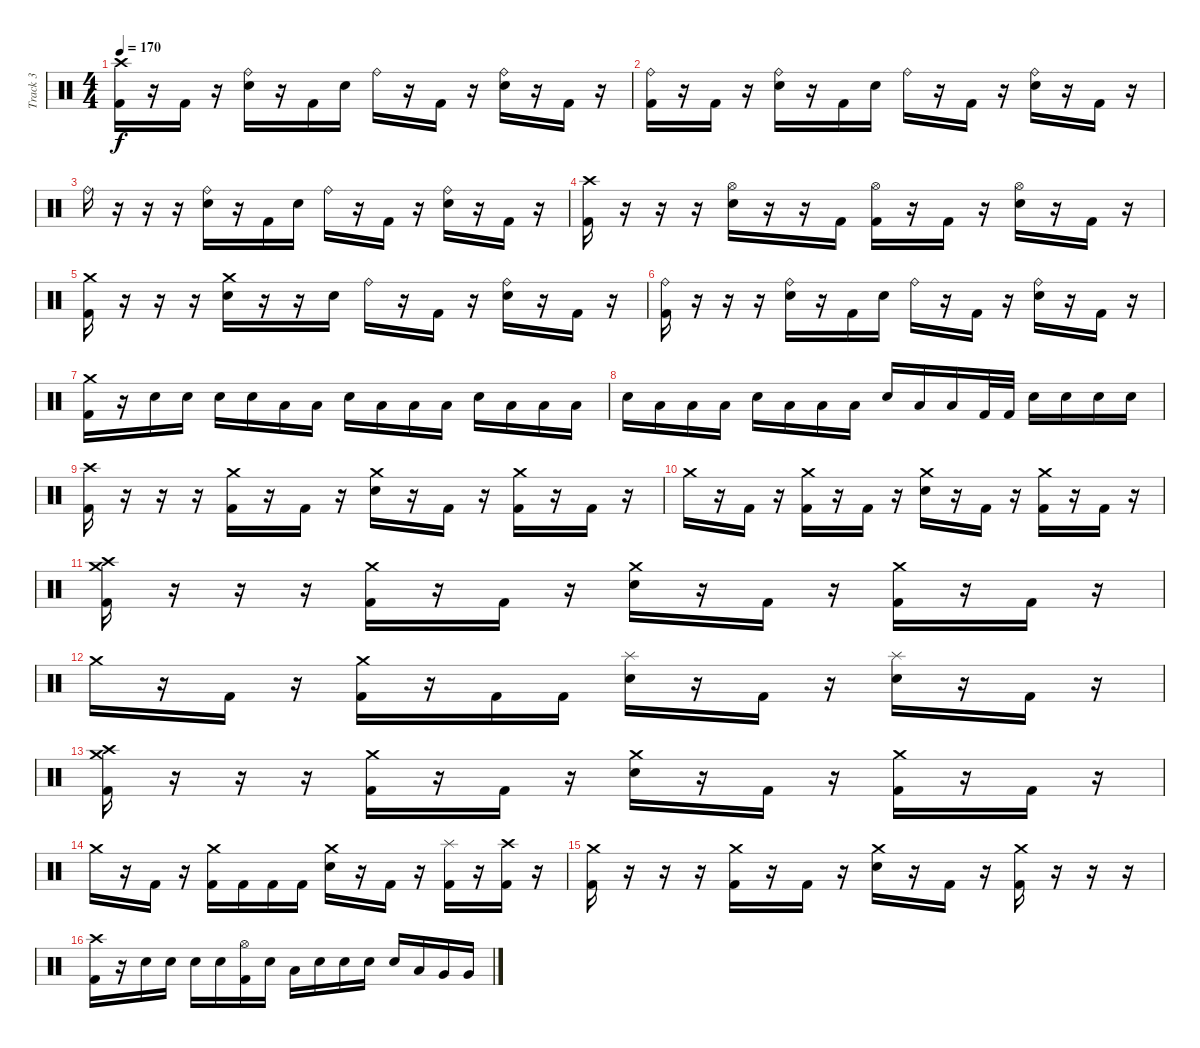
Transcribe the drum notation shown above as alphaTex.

\track ("Track 3" "Track 3") {instrument percussion}
\staff {score}
\articulation defaults
\ts (4 4)
\tempo 170
\clef neutral
\ks c
("Kick (hit) 2" "Crash high (hit)").16{dy f} r.16 "Kick (hit) 2".16 r.16 ("Ride (bell)" "Electric Snare (hit)").16 r.16 "Kick (hit) 2".16 "Electric Snare (hit)".16 "Ride (bell)".16 r.16 "Kick (hit) 2".16 r.16 ("Electric Snare (hit)" "Ride (bell)").16 r.16 "Kick (hit) 2".16 r.16 |
("Ride (bell)" "Kick (hit) 2").16 r.16 "Kick (hit) 2".16 r.16 ("Ride (bell)" "Electric Snare (hit)").16 r.16 "Kick (hit) 2".16 "Electric Snare (hit)".16 "Ride (bell)".16 r.16 "Kick (hit) 2".16 r.16 ("Ride (bell)" "Electric Snare (hit)").16 r.16 "Kick (hit) 2".16 r.16 |
"Ride (bell)".16 r.16 r.16 r.16 ("Ride (bell)" "Electric Snare (hit)").16 r.16 "Kick (hit) 2".16 "Electric Snare (hit)".16 "Ride (bell)".16 r.16 "Kick (hit) 2".16 r.16 ("Ride (bell)" "Electric Snare (hit)").16 r.16 "Kick (hit) 2".16 r.16 |
("Kick (hit) 2" "Crash high (hit)").16 r.16 r.16 r.16 ("Hi-Hat (open)" "Electric Snare (hit)").16 r.16 r.16 "Kick (hit) 2".16 ("Hi-Hat (open)" "Kick (hit) 2").16 r.16 "Kick (hit) 2".16 r.16 ("Hi-Hat (open)" "Electric Snare (hit)").16 r.16 "Kick (hit) 2".16 r.16 |
("Kick (hit) 2" "Crash medium (hit)").16 r.16 r.16 r.16 ("Crash medium (hit)" "Electric Snare (hit)").16 r.16 r.16 "Electric Snare (hit)".16 "Ride (bell)".16 r.16 "Kick (hit) 2".16 r.16 ("Electric Snare (hit)" "Ride (bell)").16 r.16 "Kick (hit) 2".16 r.16 |
("Kick (hit) 2" "Ride (bell)").16 r.16 r.16 r.16 ("Ride (bell)" "Electric Snare (hit)").16 r.16 "Kick (hit) 2".16 "Electric Snare (hit)".16 "Ride (bell)".16 r.16 "Kick (hit) 2".16 r.16 ("Ride (bell)" "Electric Snare (hit)").16 r.16 "Kick (hit) 2".16 r.16 |
("Kick (hit) 2" "Crash medium (hit)").16 r.16 "Electric Snare (hit)".16 "Electric Snare (hit)".16 "Electric Snare (hit)".16 "Electric Snare (hit)".16 "Low Tom (hit)".16 "Low Tom (hit)".16 "Electric Snare (hit)".16 "Low Tom (hit)".16 "Low Tom (hit)".16 "Low Tom (hit)".16 "Electric Snare (hit)".16 "Low Tom (hit)".16 "Low Tom (hit)".16 "Low Tom (hit)".16 |
"Electric Snare (hit)".16 "Low Tom (hit)".16 "Low Floor Tom (hit)".16 "Low Tom (hit)".16 "Electric Snare (hit)".16 "Low Tom (hit)".16 "Low Floor Tom (hit)".16 "Low Tom (hit)".16 "Electric Snare (hit)".16 "Low Tom (hit)".16 "Low Floor Tom (hit)".16 "Kick (hit) 2".32 "Kick (hit) 2".32 "Electric Snare (hit)".16 "Electric Snare (hit)".16 "Electric Snare (hit)".16 "Electric Snare (hit)".16 |
("Kick (hit) 2" "Crash high (hit)").16 r.16 r.16 r.16 ("Crash medium (hit)" "Kick (hit) 2").16 r.16 "Kick (hit) 2".16 r.16 ("Crash medium (hit)" "Electric Snare (hit)").16 r.16 "Kick (hit) 2".16 r.16 ("Crash medium (hit)" "Kick (hit) 2").16 r.16 "Kick (hit) 2".16 r.16 |
"Crash medium (hit)".16 r.16 "Kick (hit) 2".16 r.16 ("Crash medium (hit)" "Kick (hit) 2").16 r.16 "Kick (hit) 2".16 r.16 ("Crash medium (hit)" "Electric Snare (hit)").16 r.16 "Kick (hit) 2".16 r.16 ("Crash medium (hit)" "Kick (hit) 2").16 r.16 "Kick (hit) 2".16 r.16 |
("Kick (hit) 2" "Crash high (hit)" "Crash medium (hit)").16 r.16 r.16 r.16 ("Crash medium (hit)" "Kick (hit) 2").16 r.16 "Kick (hit) 2".16 r.16 ("Crash medium (hit)" "Electric Snare (hit)").16 r.16 "Kick (hit) 2".16 r.16 ("Crash medium (hit)" "Kick (hit) 2").16 r.16 "Kick (hit) 2".16 r.16 |
"Crash medium (hit)".16 r.16 "Kick (hit) 2".16 r.16 ("Crash medium (hit)" "Kick (hit) 2").16 r.16 "Kick (hit) 2".16 "Kick (hit) 2".16 ("Electric Snare (hit)" "Splash (hit)").16 r.16 "Kick (hit) 2".16 r.16 ("Splash (hit)" "Electric Snare (hit)").16 r.16 "Kick (hit) 2".16 r.16 |
("Kick (hit) 2" "Crash medium (hit)" "Crash high (hit)").16 r.16 r.16 r.16 ("Crash medium (hit)" "Kick (hit) 2").16 r.16 "Kick (hit) 2".16 r.16 ("Crash medium (hit)" "Electric Snare (hit)").16 r.16 "Kick (hit) 2".16 r.16 ("Crash medium (hit)" "Kick (hit) 2").16 r.16 "Kick (hit) 2".16 r.16 |
"Crash medium (hit)".16 r.16 "Kick (hit) 2".16 r.16 ("Crash medium (hit)" "Kick (hit) 2").16 "Kick (hit) 2".16 "Kick (hit) 2".16 "Kick (hit) 2".16 ("Crash medium (hit)" "Electric Snare (hit)").16 r.16 "Kick (hit) 2".16 r.16 ("Splash (hit)" "Kick (hit) 2").16 r.16 ("Kick (hit) 2" "Crash high (hit)").16 r.16 |
("Kick (hit) 2" "Crash medium (hit)").16 r.16 r.16 r.16 ("Crash medium (hit)" "Kick (hit) 2").16 r.16 "Kick (hit) 2".16 r.16 ("Crash medium (hit)" "Electric Snare (hit)").16 r.16 "Kick (hit) 2".16 r.16 ("Crash medium (hit)" "Kick (hit) 2").16 r.16 r.16 r.16 |
("Kick (hit) 2" "Crash high (hit)").16 r.16 "Electric Snare (hit)".16 "Electric Snare (hit)".16 "Electric Snare (hit)".16 "Electric Snare (hit)".16 ("Kick (hit) 2" "Hi-Hat (open)").16 "Electric Snare (hit)".16 "Low Tom (hit)".16 "Electric Snare (hit)".16 "Electric Snare (hit)".16 "Electric Snare (hit)".16 "Electric Snare (hit)".16 "Low Tom (hit)".16 "Very Low Tom (hit)".16 "Very Low Tom (hit)".16
